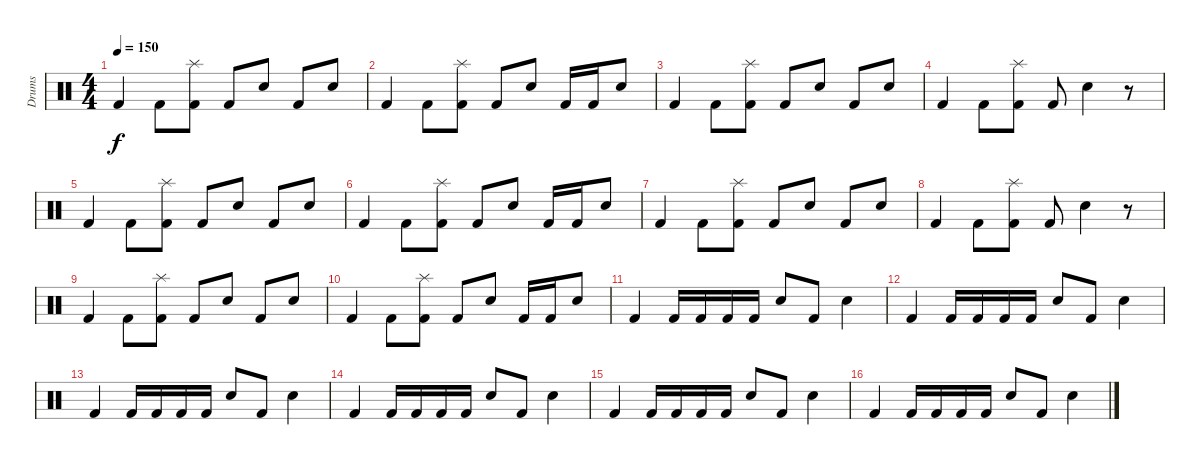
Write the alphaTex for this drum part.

\track ("Drums" "Drums") {instrument percussion}
\staff {score}
\articulation defaults
\ts (4 4)
\tempo 150
\clef neutral
\ks c "Kick (hit) 2".4{dy f} "Kick (hit) 2".8
("Splash (hit)" "Kick (hit) 2").8 "Kick (hit) 2".8 "Snare (hit) 2".8 "Kick (hit) 2".8 "Snare (hit) 2".8 |
"Kick (hit) 2".4 "Kick (hit) 2".8 ("Splash (hit)" "Kick (hit) 2").8 "Kick (hit) 2".8 "Snare (hit) 2".8 "Kick (hit) 2".16 "Kick (hit) 2".16 "Snare (hit) 2".8 |
"Kick (hit) 2".4 "Kick (hit) 2".8 ("Splash (hit)" "Kick (hit) 2").8 "Kick (hit) 2".8 "Snare (hit) 2".8 "Kick (hit) 2".8 "Snare (hit) 2".8 |
"Kick (hit) 2".4 "Kick (hit) 2".8 ("Splash (hit)" "Kick (hit) 2").8 "Kick (hit) 2".8 "Snare (hit) 2".4 r.8 |
"Kick (hit) 2".4 "Kick (hit) 2".8 ("Splash (hit)" "Kick (hit) 2").8 "Kick (hit) 2".8 "Snare (hit) 2".8 "Kick (hit) 2".8 "Snare (hit) 2".8 |
"Kick (hit) 2".4 "Kick (hit) 2".8 ("Splash (hit)" "Kick (hit) 2").8 "Kick (hit) 2".8 "Snare (hit) 2".8 "Kick (hit) 2".16 "Kick (hit) 2".16 "Snare (hit) 2".8 |
"Kick (hit) 2".4 "Kick (hit) 2".8 ("Splash (hit)" "Kick (hit) 2").8 "Kick (hit) 2".8 "Snare (hit) 2".8 "Kick (hit) 2".8 "Snare (hit) 2".8 |
"Kick (hit) 2".4 "Kick (hit) 2".8 ("Splash (hit)" "Kick (hit) 2").8 "Kick (hit) 2".8 "Snare (hit) 2".4 r.8 |
"Kick (hit) 2".4 "Kick (hit) 2".8 ("Splash (hit)" "Kick (hit) 2").8 "Kick (hit) 2".8 "Snare (hit) 2".8 "Kick (hit) 2".8 "Snare (hit) 2".8 |
"Kick (hit) 2".4 "Kick (hit) 2".8 ("Splash (hit)" "Kick (hit) 2").8 "Kick (hit) 2".8 "Snare (hit) 2".8 "Kick (hit) 2".16 "Kick (hit) 2".16 "Snare (hit) 2".8 |
"Kick (hit) 2".4 "Kick (hit) 2".16 "Kick (hit) 2".16 "Kick (hit) 2".16 "Kick (hit) 2".16 "Snare (hit) 2".8 "Kick (hit) 2".8 "Snare (hit) 2".4 |
"Kick (hit) 2".4 "Kick (hit) 2".16 "Kick (hit) 2".16 "Kick (hit) 2".16 "Kick (hit) 2".16 "Snare (hit) 2".8 "Kick (hit) 2".8 "Snare (hit) 2".4 |
"Kick (hit) 2".4 "Kick (hit) 2".16 "Kick (hit) 2".16 "Kick (hit) 2".16 "Kick (hit) 2".16 "Snare (hit) 2".8 "Kick (hit) 2".8 "Snare (hit) 2".4 |
"Kick (hit) 2".4 "Kick (hit) 2".16 "Kick (hit) 2".16 "Kick (hit) 2".16 "Kick (hit) 2".16 "Snare (hit) 2".8 "Kick (hit) 2".8 "Snare (hit) 2".4 |
"Kick (hit) 2".4 "Kick (hit) 2".16 "Kick (hit) 2".16 "Kick (hit) 2".16 "Kick (hit) 2".16 "Snare (hit) 2".8 "Kick (hit) 2".8 "Snare (hit) 2".4 |
"Kick (hit) 2".4 "Kick (hit) 2".16 "Kick (hit) 2".16 "Kick (hit) 2".16 "Kick (hit) 2".16 "Snare (hit) 2".8 "Kick (hit) 2".8 "Snare (hit) 2".4
